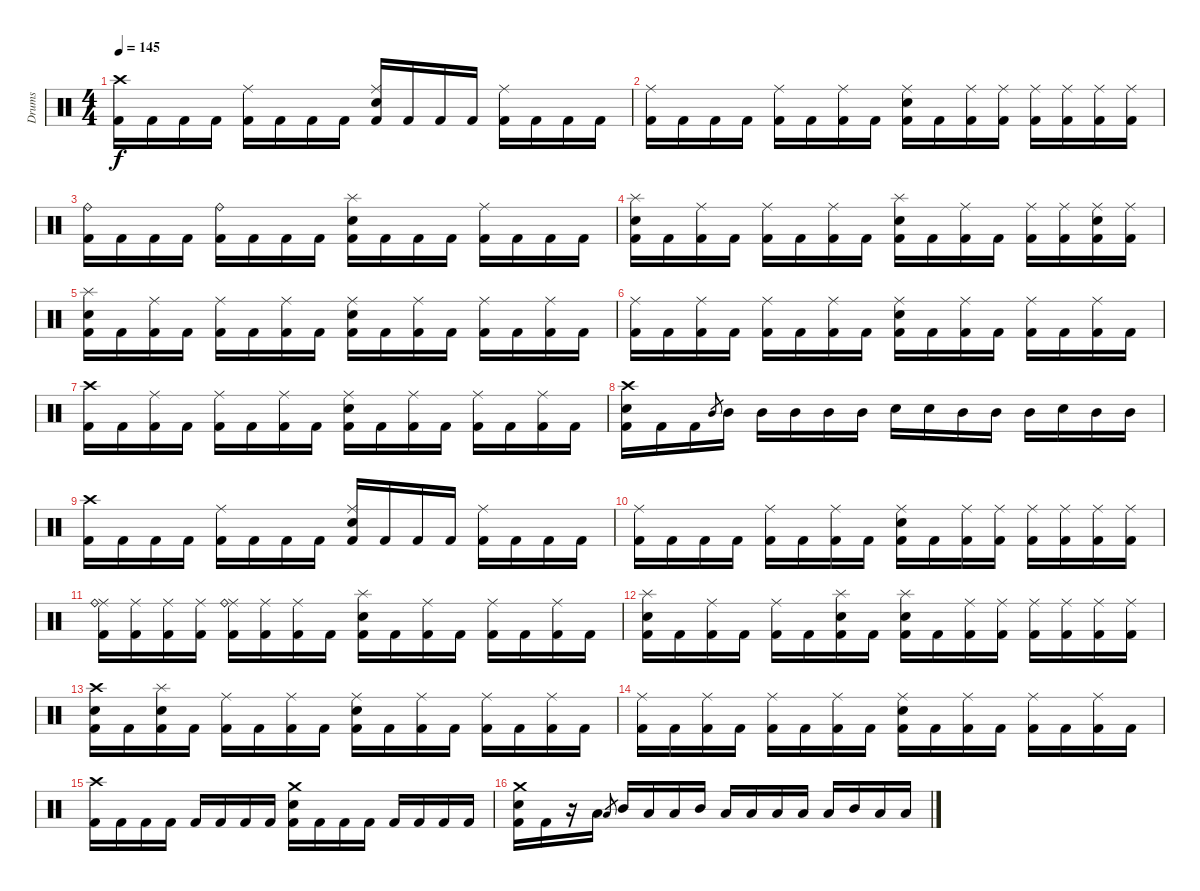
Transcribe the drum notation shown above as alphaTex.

\track ("Drums" "Drums") {instrument percussion}
\staff {score}
\articulation defaults
\ts (4 4)
\tempo 145
\clef neutral
\ks c
("Crash high (hit)" "Kick (hit) 2").16{dy f} "Kick (hit) 2".16 "Kick (hit) 2".16 "Kick (hit) 2".16 ("Ride (middle)" "Kick (hit) 2").16 "Kick (hit) 2".16 "Kick (hit) 2".16 "Kick (hit) 2".16 ("Ride (middle)" "Electric Snare (hit)" "Kick (hit) 2").16 "Kick (hit) 2".16 "Kick (hit) 2".16 "Kick (hit) 2".16 ("Ride (middle)" "Kick (hit) 2").16 "Kick (hit) 2".16 "Kick (hit) 2".16 "Kick (hit) 2".16 |
("Ride (middle)" "Kick (hit) 2").16 "Kick (hit) 2".16 "Kick (hit) 2".16 "Kick (hit) 2".16 ("Ride (middle)" "Kick (hit) 2").16 "Kick (hit) 2".16 ("Ride (middle)" "Kick (hit) 2").16 "Kick (hit) 2".16 ("Ride (middle)" "Electric Snare (hit)" "Kick (hit) 2").16 "Kick (hit) 2".16 ("Ride (middle)" "Kick (hit) 2").16 ("Ride (middle)" "Kick (hit) 2").16 ("Ride (middle)" "Kick (hit) 2").16 ("Ride (middle)" "Kick (hit) 2").16 ("Ride (middle)" "Kick (hit) 2").16 ("Ride (middle)" "Kick (hit) 2").16 |
("Ride (bell)" "Kick (hit) 2").16 "Kick (hit) 2".16 "Kick (hit) 2".16 "Kick (hit) 2".16 ("Ride (bell)" "Kick (hit) 2").16 "Kick (hit) 2".16 "Kick (hit) 2".16 "Kick (hit) 2".16 ("Splash (hit)" "Electric Snare (hit)" "Kick (hit) 2").16 "Kick (hit) 2".16 "Kick (hit) 2".16 "Kick (hit) 2".16 ("Ride (middle)" "Kick (hit) 2").16 "Kick (hit) 2".16 "Kick (hit) 2".16 "Kick (hit) 2".16 |
("Splash (hit)" "Electric Snare (hit)" "Kick (hit) 2").16 "Kick (hit) 2".16 ("Ride (middle)" "Kick (hit) 2").16 "Kick (hit) 2".16 ("Ride (middle)" "Kick (hit) 2").16 "Kick (hit) 2".16 ("Ride (middle)" "Kick (hit) 2").16 "Kick (hit) 2".16 ("Splash (hit)" "Electric Snare (hit)" "Kick (hit) 2").16 "Kick (hit) 2".16 ("Ride (middle)" "Kick (hit) 2").16 "Kick (hit) 2".16 ("Ride (middle)" "Kick (hit) 2").16 ("Ride (middle)" "Kick (hit) 2").16 ("Ride (middle)" "Electric Snare (hit)" "Kick (hit) 2").16 ("Ride (middle)" "Kick (hit) 2").16 |
("Splash (hit)" "Electric Snare (hit)" "Kick (hit) 2").16 "Kick (hit) 2".16 ("Ride (middle)" "Kick (hit) 2").16 "Kick (hit) 2".16 ("Ride (middle)" "Kick (hit) 2").16 "Kick (hit) 2".16 ("Ride (middle)" "Kick (hit) 2").16 "Kick (hit) 2".16 ("Ride (middle)" "Electric Snare (hit)" "Kick (hit) 2").16 "Kick (hit) 2".16 ("Ride (middle)" "Kick (hit) 2").16 "Kick (hit) 2".16 ("Ride (middle)" "Kick (hit) 2").16 "Kick (hit) 2".16 ("Ride (middle)" "Kick (hit) 2").16 "Kick (hit) 2".16 |
("Ride (middle)" "Kick (hit) 2").16 "Kick (hit) 2".16 ("Ride (middle)" "Kick (hit) 2").16 "Kick (hit) 2".16 ("Ride (middle)" "Kick (hit) 2").16 "Kick (hit) 2".16 ("Ride (middle)" "Kick (hit) 2").16 "Kick (hit) 2".16 ("Ride (middle)" "Electric Snare (hit)" "Kick (hit) 2").16 "Kick (hit) 2".16 ("Ride (middle)" "Kick (hit) 2").16 "Kick (hit) 2".16 ("Ride (middle)" "Kick (hit) 2").16 "Kick (hit) 2".16 ("Ride (middle)" "Kick (hit) 2").16 "Kick (hit) 2".16 |
("Crash high (hit)" "Kick (hit) 2").16 "Kick (hit) 2".16 ("Ride (middle)" "Kick (hit) 2").16 "Kick (hit) 2".16 ("Ride (middle)" "Kick (hit) 2").16 "Kick (hit) 2".16 ("Ride (middle)" "Kick (hit) 2").16 "Kick (hit) 2".16 ("Ride (middle)" "Electric Snare (hit)" "Kick (hit) 2").16 "Kick (hit) 2".16 ("Ride (middle)" "Kick (hit) 2").16 "Kick (hit) 2".16 ("Ride (middle)" "Kick (hit) 2").16 "Kick (hit) 2".16 ("Ride (middle)" "Kick (hit) 2").16 "Kick (hit) 2".16 |
("Crash high (hit)" "Electric Snare (hit)" "Kick (hit) 2").16 "Kick (hit) 2".16 "Kick (hit) 2".16 "Mid Tom (hit)".8{gr} "Mid Tom (hit)".16 "Mid Tom (hit)".16 "Mid Tom (hit)".16 "Mid Tom (hit)".16 "Mid Tom (hit)".16 "Electric Snare (hit)".16 "Electric Snare (hit)".16 "Mid Tom (hit)".16 "Mid Tom (hit)".16 "Mid Tom (hit)".16 "Electric Snare (hit)".16 "Mid Tom (hit)".16 "Mid Tom (hit)".16 |
("Crash high (hit)" "Kick (hit) 2").16 "Kick (hit) 2".16 "Kick (hit) 2".16 "Kick (hit) 2".16 ("Ride (middle)" "Kick (hit) 2").16 "Kick (hit) 2".16 "Kick (hit) 2".16 "Kick (hit) 2".16 ("Ride (middle)" "Electric Snare (hit)" "Kick (hit) 2").16 "Kick (hit) 2".16 "Kick (hit) 2".16 "Kick (hit) 2".16 ("Ride (middle)" "Kick (hit) 2").16 "Kick (hit) 2".16 "Kick (hit) 2".16 "Kick (hit) 2".16 |
("Ride (middle)" "Kick (hit) 2").16 "Kick (hit) 2".16 "Kick (hit) 2".16 "Kick (hit) 2".16 ("Ride (middle)" "Kick (hit) 2").16 "Kick (hit) 2".16 ("Ride (middle)" "Kick (hit) 2").16 "Kick (hit) 2".16 ("Ride (middle)" "Electric Snare (hit)" "Kick (hit) 2").16 "Kick (hit) 2".16 ("Ride (middle)" "Kick (hit) 2").16 ("Ride (middle)" "Kick (hit) 2").16 ("Ride (middle)" "Kick (hit) 2").16 ("Ride (middle)" "Kick (hit) 2").16 ("Ride (middle)" "Kick (hit) 2").16 ("Ride (middle)" "Kick (hit) 2").16 |
("Ride (middle)" "Ride (bell)" "Kick (hit) 2").16 ("Ride (middle)" "Kick (hit) 2").16 ("Ride (middle)" "Kick (hit) 2").16 ("Ride (middle)" "Kick (hit) 2").16 ("Ride (middle)" "Ride (bell)" "Kick (hit) 2").16 ("Ride (middle)" "Kick (hit) 2").16 ("Ride (middle)" "Kick (hit) 2").16 "Kick (hit) 2".16 ("Splash (hit)" "Electric Snare (hit)" "Kick (hit) 2").16 "Kick (hit) 2".16 ("Ride (middle)" "Kick (hit) 2").16 "Kick (hit) 2".16 ("Ride (middle)" "Kick (hit) 2").16 "Kick (hit) 2".16 ("Ride (middle)" "Kick (hit) 2").16 "Kick (hit) 2".16 |
("Splash (hit)" "Electric Snare (hit)" "Kick (hit) 2").16 "Kick (hit) 2".16 ("Ride (middle)" "Kick (hit) 2").16 "Kick (hit) 2".16 ("Ride (middle)" "Kick (hit) 2").16 "Kick (hit) 2".16 ("Splash (hit)" "Electric Snare (hit)" "Kick (hit) 2").16 "Kick (hit) 2".16 ("Splash (hit)" "Electric Snare (hit)" "Kick (hit) 2").16 "Kick (hit) 2".16 ("Ride (middle)" "Kick (hit) 2").16 ("Ride (middle)" "Kick (hit) 2").16 ("Ride (middle)" "Kick (hit) 2").16 ("Ride (middle)" "Kick (hit) 2").16 ("Ride (middle)" "Kick (hit) 2").16 ("Ride (middle)" "Kick (hit) 2").16 |
("Crash high (hit)" "Electric Snare (hit)" "Kick (hit) 2").16 "Kick (hit) 2".16 ("Splash (hit)" "Electric Snare (hit)" "Kick (hit) 2").16 "Kick (hit) 2".16 ("Ride (middle)" "Kick (hit) 2").16 "Kick (hit) 2".16 ("Ride (middle)" "Kick (hit) 2").16 "Kick (hit) 2".16 ("Ride (middle)" "Electric Snare (hit)" "Kick (hit) 2").16 "Kick (hit) 2".16 ("Ride (middle)" "Kick (hit) 2").16 "Kick (hit) 2".16 ("Ride (middle)" "Kick (hit) 2").16 "Kick (hit) 2".16 ("Ride (middle)" "Kick (hit) 2").16 "Kick (hit) 2".16 |
("Ride (middle)" "Kick (hit) 2").16 "Kick (hit) 2".16 ("Ride (middle)" "Kick (hit) 2").16 "Kick (hit) 2".16 ("Ride (middle)" "Kick (hit) 2").16 "Kick (hit) 2".16 ("Ride (middle)" "Kick (hit) 2").16 "Kick (hit) 2".16 ("Ride (middle)" "Electric Snare (hit)" "Kick (hit) 2").16 "Kick (hit) 2".16 ("Ride (middle)" "Kick (hit) 2").16 "Kick (hit) 2".16 ("Ride (middle)" "Kick (hit) 2").16 "Kick (hit) 2".16 ("Ride (middle)" "Kick (hit) 2").16 "Kick (hit) 2".16 |
("Crash high (hit)" "Kick (hit) 2").16 "Kick (hit) 2".16 "Kick (hit) 2".16 "Kick (hit) 2".16 "Kick (hit) 2".16 "Kick (hit) 2".16 "Kick (hit) 2".16 "Kick (hit) 2".16 ("Crash medium (hit)" "Electric Snare (hit)" "Kick (hit) 2").16 "Kick (hit) 2".16 "Kick (hit) 2".16 "Kick (hit) 2".16 "Kick (hit) 2".16 "Kick (hit) 2".16 "Kick (hit) 2".16 "Kick (hit) 2".16 |
("Crash medium (hit)" "Electric Snare (hit)" "Kick (hit) 2").16 "Kick (hit) 2".16 r.16 "Low Tom (hit)".16 "Low Tom (hit)".8{gr} "Mid Tom (hit)".16 "Low Tom (hit)".16 "Low Tom (hit)".16 "Mid Tom (hit)".16 "Low Tom (hit)".16 "Low Tom (hit)".16 "Low Tom (hit)".16 "Low Tom (hit)".16 "Low Tom (hit)".16 "Mid Tom (hit)".16 "Low Tom (hit)".16 "Low Tom (hit)".16
